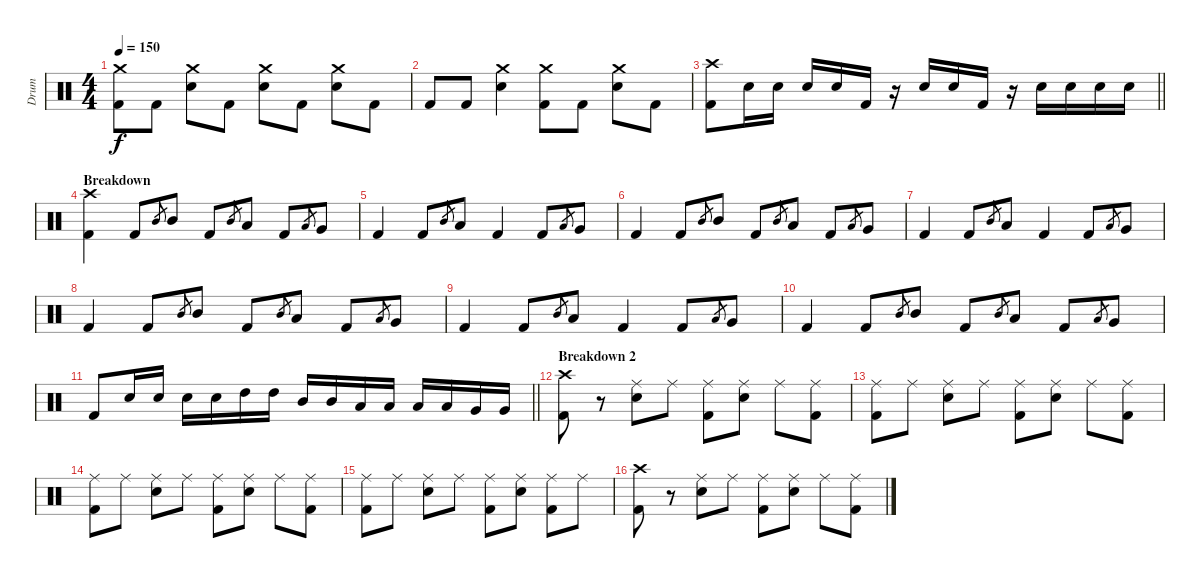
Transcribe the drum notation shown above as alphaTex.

\track ("Drum" "Drum") {instrument percussion}
\staff {score}
\articulation defaults
\ts (4 4)
\tempo 150
\clef neutral
\ks c
("Kick (hit) 2" "Crash medium (hit)").8{dy f} "Kick (hit) 2".8 ("Electric Snare (hit)" "Crash medium (hit)").8 "Kick (hit) 2".8 ("Electric Snare (hit)" "Crash medium (hit)").8 "Kick (hit) 2".8 ("Electric Snare (hit)" "Crash medium (hit)").8 "Kick (hit) 2".8 |
"Kick (hit) 2".8 "Kick (hit) 2".8 ("Electric Snare (hit)" "Crash medium (hit)").4 ("Kick (hit) 2" "Crash medium (hit)").8 "Kick (hit) 2".8 ("Electric Snare (hit)" "Crash medium (hit)").8 "Kick (hit) 2".8 |
\barLineRight lightlight
("Kick (hit) 2" "Crash high (hit)").8 "Electric Snare (hit)".16 "Electric Snare (hit)".16 "Electric Snare (hit)".16 "Electric Snare (hit)".16 "Kick (hit) 2".16 r.16 "Electric Snare (hit)".16 "Electric Snare (hit)".16 "Kick (hit) 2".16 r.16 "Electric Snare (hit)".16 "Electric Snare (hit)".16 "Electric Snare (hit)".16 "Electric Snare (hit)".16 |
\section ("" "Breakdown")
("Kick (hit) 2" "Crash high (hit)").4 "Kick (hit) 2".8 "Mid Tom (hit)".8{gr} "Mid Tom (hit)".8 "Kick (hit) 2".8 "Mid Tom (hit)".8{gr} "Low Tom (hit)".8 "Kick (hit) 2".8 "Low Tom (hit)".8{gr} "Very Low Tom (hit)".8 |
"Kick (hit) 2".4 "Kick (hit) 2".8 "Mid Tom (hit)".8{gr} "Low Tom (hit)".8 "Kick (hit) 2".4 "Kick (hit) 2".8 "Low Tom (hit)".8{gr} "Very Low Tom (hit)".8 |
"Kick (hit) 2".4 "Kick (hit) 2".8 "Mid Tom (hit)".8{gr} "Mid Tom (hit)".8 "Kick (hit) 2".8 "Mid Tom (hit)".8{gr} "Low Tom (hit)".8 "Kick (hit) 2".8 "Low Tom (hit)".8{gr} "Very Low Tom (hit)".8 |
"Kick (hit) 2".4 "Kick (hit) 2".8 "Mid Tom (hit)".8{gr} "Low Tom (hit)".8 "Kick (hit) 2".4 "Kick (hit) 2".8 "Low Tom (hit)".8{gr} "Very Low Tom (hit)".8 |
"Kick (hit) 2".4 "Kick (hit) 2".8 "Mid Tom (hit)".8{gr} "Mid Tom (hit)".8 "Kick (hit) 2".8 "Mid Tom (hit)".8{gr} "Low Tom (hit)".8 "Kick (hit) 2".8 "Low Tom (hit)".8{gr} "Very Low Tom (hit)".8 |
"Kick (hit) 2".4 "Kick (hit) 2".8 "Mid Tom (hit)".8{gr} "Low Tom (hit)".8 "Kick (hit) 2".4 "Kick (hit) 2".8 "Low Tom (hit)".8{gr} "Very Low Tom (hit)".8 |
"Kick (hit) 2".4 "Kick (hit) 2".8 "Mid Tom (hit)".8{gr} "Mid Tom (hit)".8 "Kick (hit) 2".8 "Mid Tom (hit)".8{gr} "Low Tom (hit)".8 "Kick (hit) 2".8 "Low Tom (hit)".8{gr} "Very Low Tom (hit)".8 |
\barLineRight lightlight "Kick (hit) 2".8 "Electric Snare (hit)".16 "Electric Snare (hit)".16 "Electric Snare (hit)".16 "Electric Snare (hit)".16 "High Tom (hit)".16 "High Tom (hit)".16 "Mid Tom (hit)".16 "Mid Tom (hit)".16 "Low Tom (hit)".16 "Low Tom (hit)".16 "Low Tom (hit)".16 "Low Tom (hit)".16 "Very Low Tom (hit)".16 "Very Low Tom (hit)".16
|
\section ("" "Breakdown 2")
("Kick (hit) 2" "Crash high (hit)").8 r.8 ("Electric Snare (hit)" "Ride (middle)").8 "Ride (middle)".8 ("Kick (hit) 2" "Ride (middle)").8 ("Electric Snare (hit)" "Ride (middle)").8 "Ride (middle)".8 ("Kick (hit) 2" "Ride (middle)").8 |
("Kick (hit) 2" "Ride (middle)").8 "Ride (middle)".8 ("Electric Snare (hit)" "Ride (middle)").8 "Ride (middle)".8 ("Kick (hit) 2" "Ride (middle)").8 ("Electric Snare (hit)" "Ride (middle)").8 "Ride (middle)".8 ("Kick (hit) 2" "Ride (middle)").8 |
("Kick (hit) 2" "Ride (middle)").8 "Ride (middle)".8 ("Electric Snare (hit)" "Ride (middle)").8 "Ride (middle)".8 ("Kick (hit) 2" "Ride (middle)").8 ("Electric Snare (hit)" "Ride (middle)").8 "Ride (middle)".8 ("Kick (hit) 2" "Ride (middle)").8 |
("Kick (hit) 2" "Ride (middle)").8 "Ride (middle)".8 ("Electric Snare (hit)" "Ride (middle)").8 "Ride (middle)".8 ("Kick (hit) 2" "Ride (middle)").8 ("Electric Snare (hit)" "Ride (middle)").8 ("Kick (hit) 2" "Ride (middle)").8 "Ride (middle)".8 |
("Kick (hit) 2" "Crash high (hit)").8 r.8 ("Electric Snare (hit)" "Ride (middle)").8 "Ride (middle)".8 ("Kick (hit) 2" "Ride (middle)").8 ("Electric Snare (hit)" "Ride (middle)").8 "Ride (middle)".8 ("Kick (hit) 2" "Ride (middle)").8
